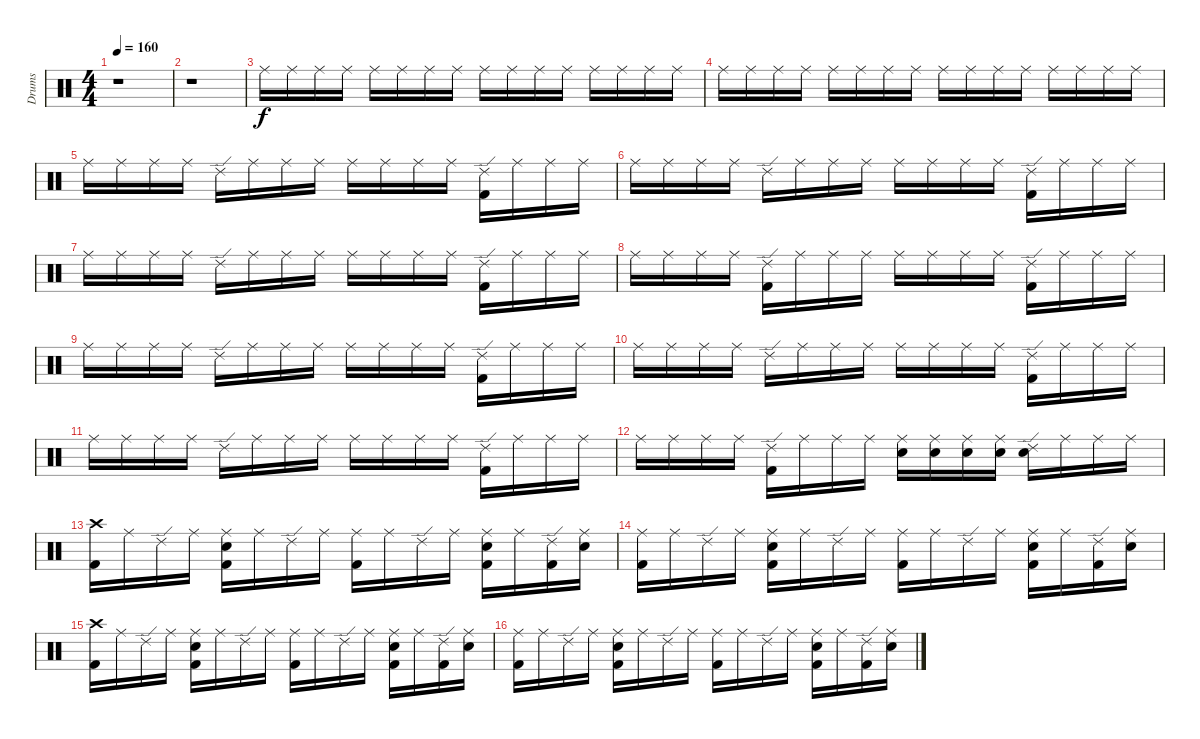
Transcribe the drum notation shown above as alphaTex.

\track ("Drums" "Drums") {instrument percussion}
\staff {score}
\articulation defaults
\ts (4 4)
\tempo 160
\clef neutral
\ks c
r.1{dy f} |
r.1 |
"Ride (middle)".16 "Ride (middle)".16 "Ride (middle)".16 "Ride (middle)".16 "Ride (middle)".16 "Ride (middle)".16 "Ride (middle)".16 "Ride (middle)".16 "Ride (middle)".16 "Ride (middle)".16 "Ride (middle)".16 "Ride (middle)".16 "Ride (middle)".16 "Ride (middle)".16 "Ride (middle)".16 "Ride (middle)".16 |
"Ride (middle)".16 "Ride (middle)".16 "Ride (middle)".16 "Ride (middle)".16 "Ride (middle)".16 "Ride (middle)".16 "Ride (middle)".16 "Ride (middle)".16 "Ride (middle)".16 "Ride (middle)".16 "Ride (middle)".16 "Ride (middle)".16 "Ride (middle)".16 "Ride (middle)".16 "Ride (middle)".16 "Ride (middle)".16 |
"Ride (middle)".16 "Ride (middle)".16 "Ride (middle)".16 "Ride (middle)".16 "Ride (edge) 2".16 "Ride (middle)".16 "Ride (middle)".16 "Ride (middle)".16 "Ride (middle)".16 "Ride (middle)".16 "Ride (middle)".16 "Ride (middle)".16 ("Ride (edge) 2" "Kick (hit) 2").16 "Ride (middle)".16 "Ride (middle)".16 "Ride (middle)".16 |
"Ride (middle)".16 "Ride (middle)".16 "Ride (middle)".16 "Ride (middle)".16 "Ride (edge) 2".16 "Ride (middle)".16 "Ride (middle)".16 "Ride (middle)".16 "Ride (middle)".16 "Ride (middle)".16 "Ride (middle)".16 "Ride (middle)".16 ("Ride (edge) 2" "Kick (hit) 2").16 "Ride (middle)".16 "Ride (middle)".16 "Ride (middle)".16 |
"Ride (middle)".16 "Ride (middle)".16 "Ride (middle)".16 "Ride (middle)".16 "Ride (edge) 2".16 "Ride (middle)".16 "Ride (middle)".16 "Ride (middle)".16 "Ride (middle)".16 "Ride (middle)".16 "Ride (middle)".16 "Ride (middle)".16 ("Ride (edge) 2" "Kick (hit) 2").16 "Ride (middle)".16 "Ride (middle)".16 "Ride (middle)".16 |
"Ride (middle)".16 "Ride (middle)".16 "Ride (middle)".16 "Ride (middle)".16 ("Ride (edge) 2" "Kick (hit) 2").16 "Ride (middle)".16 "Ride (middle)".16 "Ride (middle)".16 "Ride (middle)".16 "Ride (middle)".16 "Ride (middle)".16 "Ride (middle)".16 ("Ride (edge) 2" "Kick (hit) 2").16 "Ride (middle)".16 "Ride (middle)".16 "Ride (middle)".16 |
"Ride (middle)".16 "Ride (middle)".16 "Ride (middle)".16 "Ride (middle)".16 "Ride (edge) 2".16 "Ride (middle)".16 "Ride (middle)".16 "Ride (middle)".16 "Ride (middle)".16 "Ride (middle)".16 "Ride (middle)".16 "Ride (middle)".16 ("Ride (edge) 2" "Kick (hit) 2").16 "Ride (middle)".16 "Ride (middle)".16 "Ride (middle)".16 |
"Ride (middle)".16 "Ride (middle)".16 "Ride (middle)".16 "Ride (middle)".16 "Ride (edge) 2".16 "Ride (middle)".16 "Ride (middle)".16 "Ride (middle)".16 "Ride (middle)".16 "Ride (middle)".16 "Ride (middle)".16 "Ride (middle)".16 ("Ride (edge) 2" "Kick (hit) 2").16 "Ride (middle)".16 "Ride (middle)".16 "Ride (middle)".16 |
"Ride (middle)".16 "Ride (middle)".16 "Ride (middle)".16 "Ride (middle)".16 "Ride (edge) 2".16 "Ride (middle)".16 "Ride (middle)".16 "Ride (middle)".16 "Ride (middle)".16 "Ride (middle)".16 "Ride (middle)".16 "Ride (middle)".16 ("Ride (edge) 2" "Kick (hit) 2").16 "Ride (middle)".16 "Ride (middle)".16 "Ride (middle)".16 |
"Ride (middle)".16 "Ride (middle)".16 "Ride (middle)".16 "Ride (middle)".16 ("Ride (edge) 2" "Kick (hit) 2").16 "Ride (middle)".16 "Ride (middle)".16 "Ride (middle)".16 ("Ride (middle)" "Electric Snare (hit)").16 ("Ride (middle)" "Electric Snare (hit)").16 ("Ride (middle)" "Electric Snare (hit)").16 ("Ride (middle)" "Electric Snare (hit)").16 ("Ride (edge) 2" "Electric Snare (hit)").16 "Ride (middle)".16 "Ride (middle)".16 "Ride (middle)".16 |
("Crash high (hit)" "Kick (hit) 2").16 "Ride (middle)".16 "Ride (edge) 2".16 "Ride (middle)".16 ("Ride (middle)" "Electric Snare (hit)" "Kick (hit) 2").16 "Ride (middle)".16 "Ride (edge) 2".16 "Ride (middle)".16 ("Ride (middle)" "Kick (hit) 2").16 "Ride (middle)".16 "Ride (edge) 2".16 "Ride (middle)".16 ("Ride (middle)" "Electric Snare (hit)" "Kick (hit) 2").16 "Ride (middle)".16 ("Ride (edge) 2" "Kick (hit) 2").16 ("Ride (middle)" "Electric Snare (hit)").16 |
("Ride (middle)" "Kick (hit) 2").16 "Ride (middle)".16 "Ride (edge) 2".16 "Ride (middle)".16 ("Ride (middle)" "Electric Snare (hit)" "Kick (hit) 2").16 "Ride (middle)".16 "Ride (edge) 2".16 "Ride (middle)".16 ("Ride (middle)" "Kick (hit) 2").16 "Ride (middle)".16 "Ride (edge) 2".16 "Ride (middle)".16 ("Ride (middle)" "Electric Snare (hit)" "Kick (hit) 2").16 "Ride (middle)".16 ("Ride (edge) 2" "Kick (hit) 2").16 ("Ride (middle)" "Electric Snare (hit)").16 |
("Crash high (hit)" "Kick (hit) 2").16 "Ride (middle)".16 "Ride (edge) 2".16 "Ride (middle)".16 ("Ride (middle)" "Electric Snare (hit)" "Kick (hit) 2").16 "Ride (middle)".16 "Ride (edge) 2".16 "Ride (middle)".16 ("Ride (middle)" "Kick (hit) 2").16 "Ride (middle)".16 "Ride (edge) 2".16 "Ride (middle)".16 ("Ride (middle)" "Electric Snare (hit)" "Kick (hit) 2").16 "Ride (middle)".16 ("Ride (edge) 2" "Kick (hit) 2").16 ("Ride (middle)" "Electric Snare (hit)").16 |
("Ride (middle)" "Kick (hit) 2").16 "Ride (middle)".16 "Ride (edge) 2".16 "Ride (middle)".16 ("Ride (middle)" "Electric Snare (hit)" "Kick (hit) 2").16 "Ride (middle)".16 "Ride (edge) 2".16 "Ride (middle)".16 ("Ride (middle)" "Kick (hit) 2").16 "Ride (middle)".16 "Ride (edge) 2".16 "Ride (middle)".16 ("Ride (middle)" "Electric Snare (hit)" "Kick (hit) 2").16 "Ride (middle)".16 ("Ride (edge) 2" "Kick (hit) 2").16 ("Ride (middle)" "Electric Snare (hit)").16
